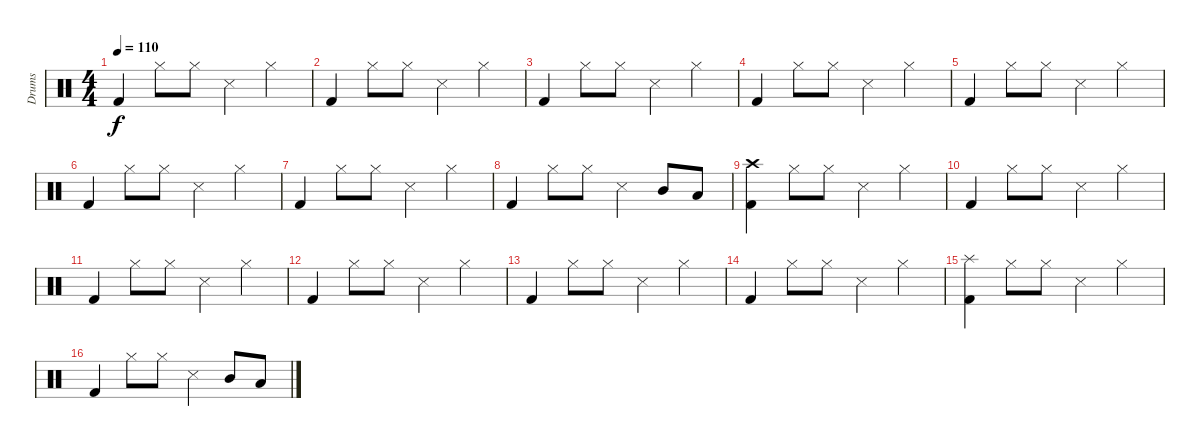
\track ("Drums" "Drums") {instrument percussion}
\staff {score}
\articulation defaults
\ts (4 4)
\tempo 110
\clef neutral
\ks c "Kick (hit) 2".4{dy f} "Hi-Hat (closed)".8 "Hi-Hat (closed)".8 "Snare (side stick) 3".4 "Hi-Hat (closed)".4
|
"Kick (hit) 2".4 "Hi-Hat (closed)".8 "Hi-Hat (closed)".8 "Snare (side stick) 3".4 "Hi-Hat (closed)".4 |
"Kick (hit) 2".4 "Hi-Hat (closed)".8 "Hi-Hat (closed)".8 "Snare (side stick) 3".4 "Hi-Hat (closed)".4 |
"Kick (hit) 2".4 "Hi-Hat (closed)".8 "Hi-Hat (closed)".8 "Snare (side stick) 3".4 "Hi-Hat (closed)".4 |
"Kick (hit) 2".4 "Hi-Hat (closed)".8 "Hi-Hat (closed)".8 "Snare (side stick) 3".4 "Hi-Hat (closed)".4 |
"Kick (hit) 2".4 "Hi-Hat (closed)".8 "Hi-Hat (closed)".8 "Snare (side stick) 3".4 "Hi-Hat (closed)".4 |
"Kick (hit) 2".4 "Hi-Hat (closed)".8 "Hi-Hat (closed)".8 "Snare (side stick) 3".4 "Hi-Hat (closed)".4 |
"Kick (hit) 2".4 "Hi-Hat (closed)".8 "Hi-Hat (closed)".8 "Snare (side stick) 3".4 "Mid Tom (hit)".8 "Low Tom (hit)".8 |
("Kick (hit) 2" "Crash high (hit)").4 "Hi-Hat (closed)".8 "Hi-Hat (closed)".8 "Snare (side stick) 3".4 "Hi-Hat (closed)".4 |
"Kick (hit) 2".4 "Hi-Hat (closed)".8 "Hi-Hat (closed)".8 "Snare (side stick) 3".4 "Hi-Hat (closed)".4 |
"Kick (hit) 2".4 "Hi-Hat (closed)".8 "Hi-Hat (closed)".8 "Snare (side stick) 3".4 "Hi-Hat (closed)".4 |
"Kick (hit) 2".4 "Hi-Hat (closed)".8 "Hi-Hat (closed)".8 "Snare (side stick) 3".4 "Hi-Hat (closed)".4 |
"Kick (hit) 2".4 "Hi-Hat (closed)".8 "Hi-Hat (closed)".8 "Snare (side stick) 3".4 "Hi-Hat (closed)".4 |
"Kick (hit) 2".4 "Hi-Hat (closed)".8 "Hi-Hat (closed)".8 "Snare (side stick) 3".4 "Hi-Hat (closed)".4 |
("Kick (hit) 2" "Splash (hit)").4 "Hi-Hat (closed)".8 "Hi-Hat (closed)".8 "Snare (side stick) 3".4 "Hi-Hat (closed)".4 |
"Kick (hit) 2".4 "Hi-Hat (closed)".8 "Hi-Hat (closed)".8 "Snare (side stick) 3".4 "Mid Tom (hit)".8 "Low Tom (hit)".8
